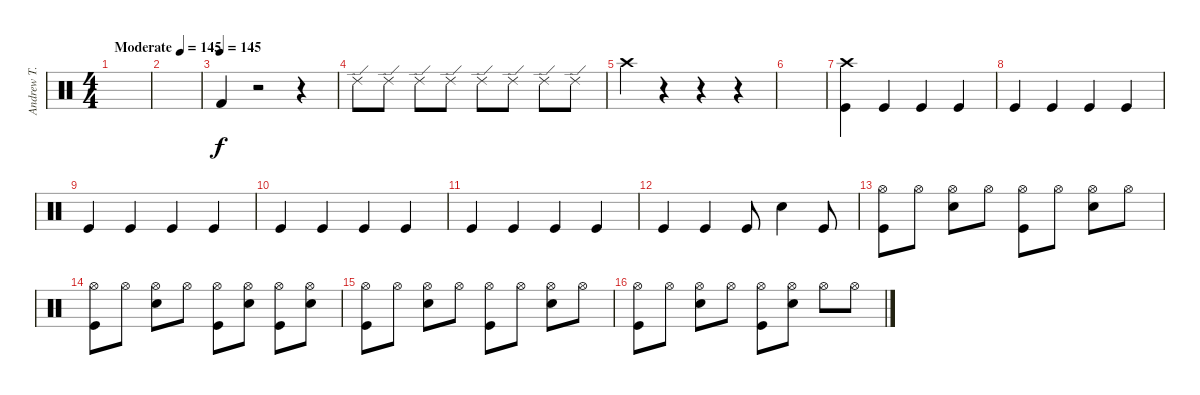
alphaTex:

\track ("Andrew T." "Andrew T.") {instrument percussion}
\staff {score}
\articulation defaults
\ts (4 4)
\tempo (145 "Moderate")
\clef neutral
\ks c
|
|
\tempo (145)
"Kick (hit) 2".4 r.2 r.4 |
"Ride (edge) 2".8 "Ride (edge) 2".8 "Ride (edge) 2".8 "Ride (edge) 2".8 "Ride (edge) 2".8 "Ride (edge) 2".8 "Ride (edge) 2".8 "Ride (edge) 2".8 |
"Crash high (hit)".4 r.4 r.4 r.4 |
|
("Kick (hit)" "Crash high (hit)").4 "Kick (hit)".4 "Kick (hit)".4 "Kick (hit)".4 |
"Kick (hit)".4 "Kick (hit)".4 "Kick (hit)".4 "Kick (hit)".4 |
"Kick (hit)".4 "Kick (hit)".4 "Kick (hit)".4 "Kick (hit)".4 |
"Kick (hit)".4 "Kick (hit)".4 "Kick (hit)".4 "Kick (hit)".4 |
"Kick (hit)".4 "Kick (hit)".4 "Kick (hit)".4 "Kick (hit)".4 |
"Kick (hit)".4 "Kick (hit)".4 "Kick (hit)".8 "Electric Snare (hit)".4 "Kick (hit)".8 |
("Hi-Hat (open)" "Kick (hit)").8 "Hi-Hat (open)".8 ("Hi-Hat (open)" "Electric Snare (hit)").8 "Hi-Hat (open)".8 ("Hi-Hat (open)" "Kick (hit)").8 "Hi-Hat (open)".8 ("Hi-Hat (open)" "Electric Snare (hit)").8 "Hi-Hat (open)".8 |
("Hi-Hat (open)" "Kick (hit)").8 "Hi-Hat (open)".8 ("Hi-Hat (open)" "Electric Snare (hit)").8 "Hi-Hat (open)".8 ("Hi-Hat (open)" "Kick (hit)").8 ("Hi-Hat (open)" "Electric Snare (hit)").8 ("Hi-Hat (open)" "Kick (hit)").8 ("Hi-Hat (open)" "Electric Snare (hit)").8 |
("Hi-Hat (open)" "Kick (hit)").8 "Hi-Hat (open)".8 ("Hi-Hat (open)" "Electric Snare (hit)").8 "Hi-Hat (open)".8 ("Hi-Hat (open)" "Kick (hit)").8 "Hi-Hat (open)".8 ("Hi-Hat (open)" "Electric Snare (hit)").8 "Hi-Hat (open)".8 |
("Hi-Hat (open)" "Kick (hit)").8 "Hi-Hat (open)".8 ("Hi-Hat (open)" "Electric Snare (hit)").8 "Hi-Hat (open)".8 ("Hi-Hat (open)" "Kick (hit)").8 ("Hi-Hat (open)" "Electric Snare (hit)").8 "Hi-Hat (open)".8 "Hi-Hat (open)".8
